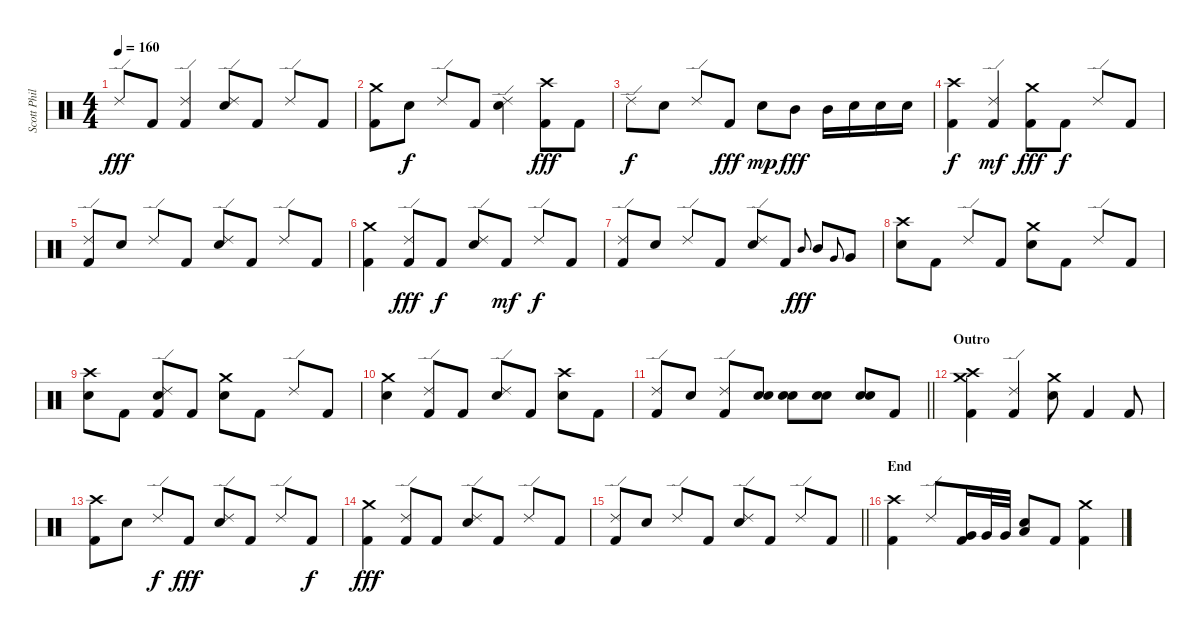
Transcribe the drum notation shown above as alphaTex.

\track ("Scott Phillips [Drums]" "Scott Phil") {instrument percussion}
\staff {score}
\articulation defaults
\ts (4 4)
\tempo 160
\clef neutral
\ks c "Ride (edge) 2".8{dy fff} "Kick (hit) 2".8
("Ride (edge) 2" "Kick (hit) 2").4 ("Ride (edge) 2" "Electric Snare (hit)").8 "Kick (hit) 2".8 "Ride (edge) 2".8 "Kick (hit) 2".8 |
("Crash medium (hit)" "Kick (hit) 2").8 "Electric Snare (hit)".8{dy f} "Ride (edge) 2".8 "Kick (hit) 2".8 ("Ride (edge) 2" "Electric Snare (hit)").4 ("Crash high (hit)" "Kick (hit) 2").8{dy fff} "Kick (hit) 2".8 |
"Ride (edge) 2".8{dy f} "Electric Snare (hit)".8 "Ride (edge) 2".8 "Kick (hit) 2".8{dy fff} "Electric Snare (hit)".8{dy mp} "Mid Tom (hit)".8{dy fff} "Mid Tom (hit)".16 "Electric Snare (hit)".16 "Electric Snare (hit)".16 "Electric Snare (hit)".16 |
("Crash high (hit)" "Kick (hit) 2").4{dy f} ("Ride (edge) 2" "Kick (hit) 2").4{dy mf} ("Crash medium (hit)" "Kick (hit) 2").8{dy fff} "Kick (hit) 2".8{dy f} "Ride (edge) 2".8 "Kick (hit) 2".8 |
("Ride (edge) 2" "Kick (hit) 2").8 "Electric Snare (hit)".8 "Ride (edge) 2".8 "Kick (hit) 2".8 ("Ride (edge) 2" "Electric Snare (hit)").8 "Kick (hit) 2".8 "Ride (edge) 2".8 "Kick (hit) 2".8 |
("Crash medium (hit)" "Kick (hit) 2").4 ("Ride (edge) 2" "Kick (hit) 2").8{dy fff} "Kick (hit) 2".8{dy f} ("Ride (edge) 2" "Electric Snare (hit)").8 "Kick (hit) 2".8{dy mf} "Ride (edge) 2".8{dy f} "Kick (hit) 2".8 |
("Ride (edge) 2" "Kick (hit) 2").8 "Electric Snare (hit)".8 "Ride (edge) 2".8 "Kick (hit) 2".8 ("Ride (edge) 2" "Electric Snare (hit)").8 "Kick (hit) 2".8 "Mid Tom (hit)".8{gr onbeat dy fff} "Mid Tom (hit)".8 "Very Low Tom (hit)".8{gr onbeat} "Very Low Tom (hit)".8 |
("Crash high (hit)" "Electric Snare (hit)").8 "Kick (hit) 2".8 "Ride (edge) 2".8 "Kick (hit) 2".8 ("Crash medium (hit)" "Electric Snare (hit)").8 "Kick (hit) 2".8 "Ride (edge) 2".8 "Kick (hit) 2".8 |
("Crash high (hit)" "Electric Snare (hit)").8 "Kick (hit) 2".8 ("Ride (edge) 2" "Electric Snare (hit)" "Kick (hit) 2").8 "Kick (hit) 2".8 ("Crash medium (hit)" "Electric Snare (hit)").8 "Kick (hit) 2".8 "Ride (edge) 2".8 "Kick (hit) 2".8 |
("Crash medium (hit)" "Electric Snare (hit)").4 ("Ride (edge) 2" "Kick (hit) 2").8 "Kick (hit) 2".8 ("Ride (edge) 2" "Electric Snare (hit)").8 "Kick (hit) 2".8 ("Crash high (hit)" "Electric Snare (hit)").8 "Kick (hit) 2".8 |
\barLineRight lightlight
("Ride (edge) 2" "Kick (hit) 2").8 "Electric Snare (hit)".8 ("Ride (edge) 2" "Kick (hit) 2").8 ("Electric Snare (hit)" "Electric Snare (hit)").8 ("Electric Snare (hit)" "Electric Snare (hit)").8 ("Electric Snare (hit)" "Electric Snare (hit)").8 ("Electric Snare (hit)" "Electric Snare (hit)").8 "Kick (hit) 2".8 |
\section ("" "Outro")
("Crash high (hit)" "Crash medium (hit)" "Kick (hit) 2").4 ("Ride (edge) 2" "Kick (hit) 2").4 ("Crash medium (hit)" "Electric Snare (hit)").8 "Kick (hit) 2".4 "Kick (hit) 2".8 |
("Crash high (hit)" "Kick (hit) 2").8 "Electric Snare (hit)".8 "Ride (edge) 2".8{dy f} "Kick (hit) 2".8{dy fff} ("Ride (edge) 2" "Electric Snare (hit)").8 "Kick (hit) 2".8 "Ride (edge) 2".8 "Kick (hit) 2".8{dy f} |
("Crash medium (hit)" "Kick (hit) 2").4{dy fff} ("Ride (edge) 2" "Kick (hit) 2").8 "Kick (hit) 2".8 ("Ride (edge) 2" "Electric Snare (hit)").8 "Kick (hit) 2".8 "Ride (edge) 2".8 "Kick (hit) 2".8 |
\barLineRight lightlight
("Ride (edge) 2" "Kick (hit) 2").8 "Electric Snare (hit)".8 "Ride (edge) 2".8 "Kick (hit) 2".8 ("Ride (edge) 2" "Electric Snare (hit)").8 "Kick (hit) 2".8 "Ride (edge) 2".8 "Kick (hit) 2".8 |
\section ("" "End")
("Crash high (hit)" "Kick (hit) 2").4 "Ride (edge) 2".8 ("Very Low Tom (hit)" "Kick (hit) 2").16 "Very Low Tom (hit)".32 "Very Low Tom (hit)".32 ("Low Floor Tom (hit)" "Electric Snare (hit)").8 "Kick (hit) 2".8 ("Crash medium (hit)" "Kick (hit) 2").4
